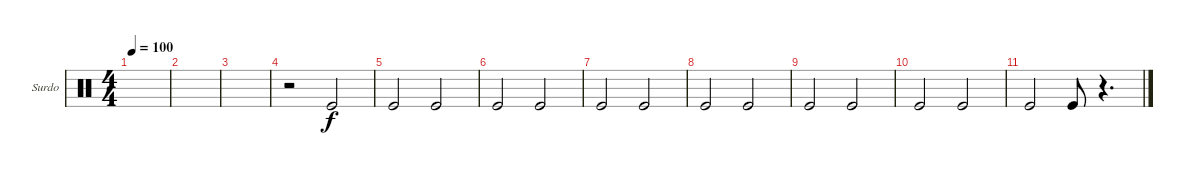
\bracketExtendMode groupsimilarinstruments
\firstSystemTrackNameOrientation horizontal
\otherSystemsTrackNameOrientation horizontal
\track ("Surdo" "Surdo") {instrument percussion}
\staff {score}
\articulation defaults
\ts (4 4)
\tempo 100
\clef neutral
\scale
0.333333
\ks c
|
\scale
0.333333 |
\scale
0.333333 |
\scale
0.333333 r.2 "Kick (hit)".2 |
\scale
0.333333 "Kick (hit)".2 "Kick (hit)".2 |
\scale
0.333333 "Kick (hit)".2 "Kick (hit)".2 |
\scale
0.333333 "Kick (hit)".2 "Kick (hit)".2 |
\scale
0.333333 "Kick (hit)".2 "Kick (hit)".2 |
\scale
0.333333 "Kick (hit)".2 "Kick (hit)".2 |
"Kick (hit)".2 "Kick (hit)".2 |
"Kick (hit)".2 "Kick (hit)".8 r.4{d}
